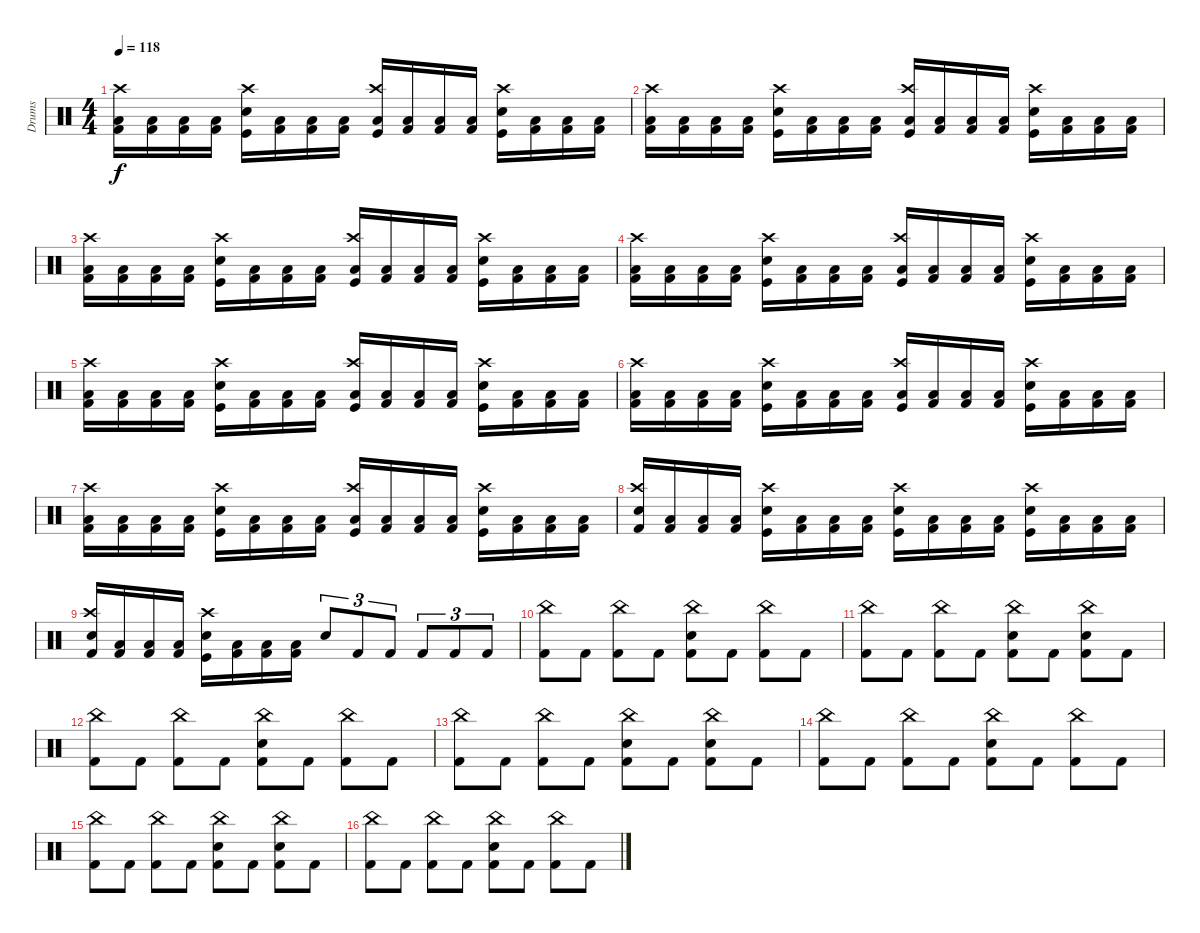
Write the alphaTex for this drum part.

\track ("Drums" "Drums") {instrument percussion}
\staff {score}
\articulation defaults
\ts (4 4)
\tempo 118
\clef neutral
\ks c
("Kick (hit) 2" "Low Floor Tom (hit)" "Crash high (hit)").16{dy f} ("Kick (hit) 2" "Low Floor Tom (hit)").16 ("Kick (hit) 2" "Low Floor Tom (hit)").16 ("Kick (hit) 2" "Low Floor Tom (hit)").16 ("Kick (hit)" "Snare (hit) 2" "Crash high (hit)").16 ("Kick (hit) 2" "Low Floor Tom (hit)").16 ("Kick (hit) 2" "Low Floor Tom (hit)").16 ("Kick (hit) 2" "Low Floor Tom (hit)").16 ("Kick (hit)" "Low Floor Tom (hit)" "Crash high (hit)").16 ("Kick (hit) 2" "Low Floor Tom (hit)").16 ("Kick (hit) 2" "Low Floor Tom (hit)").16 ("Kick (hit) 2" "Low Floor Tom (hit)").16 ("Kick (hit)" "Snare (hit) 2" "Crash high (hit)").16 ("Kick (hit) 2" "Low Floor Tom (hit)").16 ("Kick (hit) 2" "Low Floor Tom (hit)").16 ("Kick (hit) 2" "Low Floor Tom (hit)").16 |
("Kick (hit) 2" "Low Floor Tom (hit)" "Crash high (hit)").16 ("Kick (hit) 2" "Low Floor Tom (hit)").16 ("Kick (hit) 2" "Low Floor Tom (hit)").16 ("Kick (hit) 2" "Low Floor Tom (hit)").16 ("Kick (hit)" "Snare (hit) 2" "Crash high (hit)").16 ("Kick (hit) 2" "Low Floor Tom (hit)").16 ("Kick (hit) 2" "Low Floor Tom (hit)").16 ("Kick (hit) 2" "Low Floor Tom (hit)").16 ("Kick (hit)" "Low Floor Tom (hit)" "Crash high (hit)").16 ("Kick (hit) 2" "Low Floor Tom (hit)").16 ("Kick (hit) 2" "Low Floor Tom (hit)").16 ("Kick (hit) 2" "Low Floor Tom (hit)").16 ("Kick (hit)" "Snare (hit) 2" "Crash high (hit)").16 ("Kick (hit) 2" "Low Floor Tom (hit)").16 ("Kick (hit) 2" "Low Floor Tom (hit)").16 ("Kick (hit) 2" "Low Floor Tom (hit)").16 |
("Kick (hit) 2" "Low Floor Tom (hit)" "Crash high (hit)").16 ("Kick (hit) 2" "Low Floor Tom (hit)").16 ("Kick (hit) 2" "Low Floor Tom (hit)").16 ("Kick (hit) 2" "Low Floor Tom (hit)").16 ("Kick (hit)" "Snare (hit) 2" "Crash high (hit)").16 ("Kick (hit) 2" "Low Floor Tom (hit)").16 ("Kick (hit) 2" "Low Floor Tom (hit)").16 ("Kick (hit) 2" "Low Floor Tom (hit)").16 ("Kick (hit)" "Low Floor Tom (hit)" "Crash high (hit)").16 ("Kick (hit) 2" "Low Floor Tom (hit)").16 ("Kick (hit) 2" "Low Floor Tom (hit)").16 ("Kick (hit) 2" "Low Floor Tom (hit)").16 ("Kick (hit)" "Snare (hit) 2" "Crash high (hit)").16 ("Kick (hit) 2" "Low Floor Tom (hit)").16 ("Kick (hit) 2" "Low Floor Tom (hit)").16 ("Kick (hit) 2" "Low Floor Tom (hit)").16 |
("Kick (hit) 2" "Low Floor Tom (hit)" "Crash high (hit)").16 ("Kick (hit) 2" "Low Floor Tom (hit)").16 ("Kick (hit) 2" "Low Floor Tom (hit)").16 ("Kick (hit) 2" "Low Floor Tom (hit)").16 ("Kick (hit)" "Snare (hit) 2" "Crash high (hit)").16 ("Kick (hit) 2" "Low Floor Tom (hit)").16 ("Kick (hit) 2" "Low Floor Tom (hit)").16 ("Kick (hit) 2" "Low Floor Tom (hit)").16 ("Kick (hit)" "Low Floor Tom (hit)" "Crash high (hit)").16 ("Kick (hit) 2" "Low Floor Tom (hit)").16 ("Kick (hit) 2" "Low Floor Tom (hit)").16 ("Kick (hit) 2" "Low Floor Tom (hit)").16 ("Kick (hit)" "Snare (hit) 2" "Crash high (hit)").16 ("Kick (hit) 2" "Low Floor Tom (hit)").16 ("Kick (hit) 2" "Low Floor Tom (hit)").16 ("Kick (hit) 2" "Low Floor Tom (hit)").16 |
("Kick (hit) 2" "Low Floor Tom (hit)" "Crash high (hit)").16 ("Kick (hit) 2" "Low Floor Tom (hit)").16 ("Kick (hit) 2" "Low Floor Tom (hit)").16 ("Kick (hit) 2" "Low Floor Tom (hit)").16 ("Kick (hit)" "Snare (hit) 2" "Crash high (hit)").16 ("Kick (hit) 2" "Low Floor Tom (hit)").16 ("Kick (hit) 2" "Low Floor Tom (hit)").16 ("Kick (hit) 2" "Low Floor Tom (hit)").16 ("Kick (hit)" "Low Floor Tom (hit)" "Crash high (hit)").16 ("Kick (hit) 2" "Low Floor Tom (hit)").16 ("Kick (hit) 2" "Low Floor Tom (hit)").16 ("Kick (hit) 2" "Low Floor Tom (hit)").16 ("Kick (hit)" "Snare (hit) 2" "Crash high (hit)").16 ("Kick (hit) 2" "Low Floor Tom (hit)").16 ("Kick (hit) 2" "Low Floor Tom (hit)").16 ("Kick (hit) 2" "Low Floor Tom (hit)").16 |
("Kick (hit) 2" "Low Floor Tom (hit)" "Crash high (hit)").16 ("Kick (hit) 2" "Low Floor Tom (hit)").16 ("Kick (hit) 2" "Low Floor Tom (hit)").16 ("Kick (hit) 2" "Low Floor Tom (hit)").16 ("Kick (hit)" "Snare (hit) 2" "Crash high (hit)").16 ("Kick (hit) 2" "Low Floor Tom (hit)").16 ("Kick (hit) 2" "Low Floor Tom (hit)").16 ("Kick (hit) 2" "Low Floor Tom (hit)").16 ("Kick (hit)" "Low Floor Tom (hit)" "Crash high (hit)").16 ("Kick (hit) 2" "Low Floor Tom (hit)").16 ("Kick (hit) 2" "Low Floor Tom (hit)").16 ("Kick (hit) 2" "Low Floor Tom (hit)").16 ("Kick (hit)" "Snare (hit) 2" "Crash high (hit)").16 ("Kick (hit) 2" "Low Floor Tom (hit)").16 ("Kick (hit) 2" "Low Floor Tom (hit)").16 ("Kick (hit) 2" "Low Floor Tom (hit)").16 |
("Kick (hit) 2" "Low Floor Tom (hit)" "Crash high (hit)").16 ("Kick (hit) 2" "Low Floor Tom (hit)").16 ("Kick (hit) 2" "Low Floor Tom (hit)").16 ("Kick (hit) 2" "Low Floor Tom (hit)").16 ("Kick (hit)" "Snare (hit) 2" "Crash high (hit)").16 ("Kick (hit) 2" "Low Floor Tom (hit)").16 ("Kick (hit) 2" "Low Floor Tom (hit)").16 ("Kick (hit) 2" "Low Floor Tom (hit)").16 ("Kick (hit)" "Low Floor Tom (hit)" "Crash high (hit)").16 ("Kick (hit) 2" "Low Floor Tom (hit)").16 ("Kick (hit) 2" "Low Floor Tom (hit)").16 ("Kick (hit) 2" "Low Floor Tom (hit)").16 ("Kick (hit)" "Snare (hit) 2" "Crash high (hit)").16 ("Kick (hit) 2" "Low Floor Tom (hit)").16 ("Kick (hit) 2" "Low Floor Tom (hit)").16 ("Kick (hit) 2" "Low Floor Tom (hit)").16 |
("Kick (hit) 2" "Snare (hit) 2" "Crash high (hit)").16 ("Kick (hit) 2" "Low Floor Tom (hit)").16 ("Kick (hit) 2" "Low Floor Tom (hit)").16 ("Kick (hit) 2" "Low Floor Tom (hit)").16 ("Kick (hit)" "Snare (hit) 2" "Crash high (hit)").16 ("Kick (hit) 2" "Low Floor Tom (hit)").16 ("Kick (hit) 2" "Low Floor Tom (hit)").16 ("Kick (hit) 2" "Low Floor Tom (hit)").16 ("Kick (hit)" "Snare (hit) 2" "Crash high (hit)").16 ("Kick (hit) 2" "Low Floor Tom (hit)").16 ("Kick (hit) 2" "Low Floor Tom (hit)").16 ("Kick (hit) 2" "Low Floor Tom (hit)").16 ("Kick (hit)" "Snare (hit) 2" "Crash high (hit)").16 ("Kick (hit) 2" "Low Floor Tom (hit)").16 ("Kick (hit) 2" "Low Floor Tom (hit)").16 ("Kick (hit) 2" "Low Floor Tom (hit)").16 |
("Kick (hit) 2" "Snare (hit) 2" "Crash high (hit)").16 ("Kick (hit) 2" "Low Floor Tom (hit)").16 ("Kick (hit) 2" "Low Floor Tom (hit)").16 ("Kick (hit) 2" "Low Floor Tom (hit)").16 ("Kick (hit)" "Snare (hit) 2" "Crash high (hit)").16 ("Kick (hit) 2" "Low Floor Tom (hit)").16 ("Kick (hit) 2" "Low Floor Tom (hit)").16 ("Kick (hit) 2" "Low Floor Tom (hit)").16 "Snare (hit) 2".8{tu (3 2)} "Kick (hit) 2".8{tu (3 2)} "Kick (hit) 2".8{tu (3 2)} "Kick (hit) 2".8{tu (3 2)} "Kick (hit) 2".8{tu (3 2)} "Kick (hit) 2".8{tu (3 2)} |
("Kick (hit) 2" "China (hit)").8 "Kick (hit) 2".8 ("Kick (hit) 2" "China (hit)").8 "Kick (hit) 2".8 ("Kick (hit) 2" "Snare (hit) 2" "China (hit)").8 "Kick (hit) 2".8 ("Kick (hit) 2" "China (hit)").8 "Kick (hit) 2".8 |
("Kick (hit) 2" "China (hit)").8 "Kick (hit) 2".8 ("Kick (hit) 2" "China (hit)").8 "Kick (hit) 2".8 ("Kick (hit) 2" "Snare (hit) 2" "China (hit)").8 "Kick (hit) 2".8 ("Kick (hit) 2" "Snare (hit) 2" "China (hit)").8 "Kick (hit) 2".8 |
("Kick (hit) 2" "China (hit)").8 "Kick (hit) 2".8 ("Kick (hit) 2" "China (hit)").8 "Kick (hit) 2".8 ("Kick (hit) 2" "Snare (hit) 2" "China (hit)").8 "Kick (hit) 2".8 ("Kick (hit) 2" "China (hit)").8 "Kick (hit) 2".8 |
("Kick (hit) 2" "China (hit)").8 "Kick (hit) 2".8 ("Kick (hit) 2" "China (hit)").8 "Kick (hit) 2".8 ("Kick (hit) 2" "Snare (hit) 2" "China (hit)").8 "Kick (hit) 2".8 ("Kick (hit) 2" "Snare (hit) 2" "China (hit)").8 "Kick (hit) 2".8 |
("Kick (hit) 2" "China (hit)").8 "Kick (hit) 2".8 ("Kick (hit) 2" "China (hit)").8 "Kick (hit) 2".8 ("Kick (hit) 2" "Snare (hit) 2" "China (hit)").8 "Kick (hit) 2".8 ("Kick (hit) 2" "China (hit)").8 "Kick (hit) 2".8 |
("Kick (hit) 2" "China (hit)").8 "Kick (hit) 2".8 ("Kick (hit) 2" "China (hit)").8 "Kick (hit) 2".8 ("Kick (hit) 2" "Snare (hit) 2" "China (hit)").8 "Kick (hit) 2".8 ("Kick (hit) 2" "Snare (hit) 2" "China (hit)").8 "Kick (hit) 2".8 |
("Kick (hit) 2" "China (hit)").8 "Kick (hit) 2".8 ("Kick (hit) 2" "China (hit)").8 "Kick (hit) 2".8 ("Kick (hit) 2" "Snare (hit) 2" "China (hit)").8 "Kick (hit) 2".8 ("Kick (hit) 2" "China (hit)").8 "Kick (hit) 2".8
